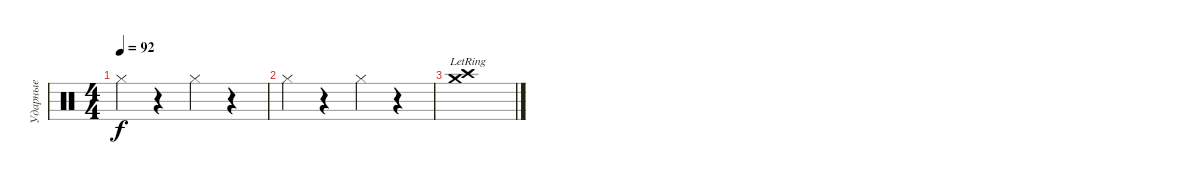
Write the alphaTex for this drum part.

\track ("Ударные" "Ударные") {instrument percussion}
\staff {score}
\articulation defaults
\ts (4 4)
\tempo 92
\clef neutral
\ks c "Hi-Hat (closed)".4{dy f}
r.4 "Hi-Hat (closed)".4 r.4 |
"Hi-Hat (closed)".4 r.4 "Hi-Hat (closed)".4 r.4 |
("Crash medium (hit)"{lr} "Crash high (hit)"{lr}).1
